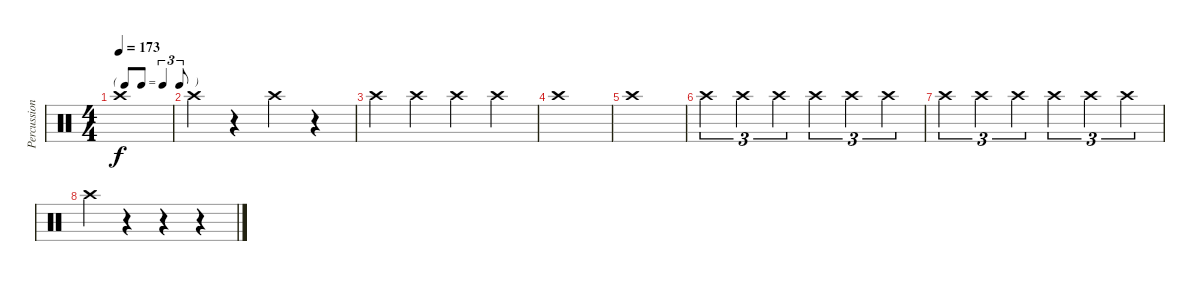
\track ("Percussion" "Percussion") {instrument percussion}
\staff {score}
\articulation defaults
\ts (4 4)
\tf triplet8th
\tempo 173
\clef neutral
\ks c "Crash high (hit)".1{dy f}
|
"Crash high (hit)".4 r.4 "Crash high (hit)".4 r.4 |
"Crash high (hit)".4 "Crash high (hit)".4 "Crash high (hit)".4 "Crash high (hit)".4 |
"Crash high (hit)".1 |
"Crash high (hit)".1 |
"Crash high (hit)".4{tu (3 2)} "Crash high (hit)".4{tu (3 2)} "Crash high (hit)".4{tu (3 2)} "Crash high (hit)".4{tu (3 2)} "Crash high (hit)".4{tu (3 2)} "Crash high (hit)".4{tu (3 2)} |
"Crash high (hit)".4{tu (3 2)} "Crash high (hit)".4{tu (3 2)} "Crash high (hit)".4{tu (3 2)} "Crash high (hit)".4{tu (3 2)} "Crash high (hit)".4{tu (3 2)} "Crash high (hit)".4{tu (3 2)} |
"Crash high (hit)".4 r.4 r.4 r.4
